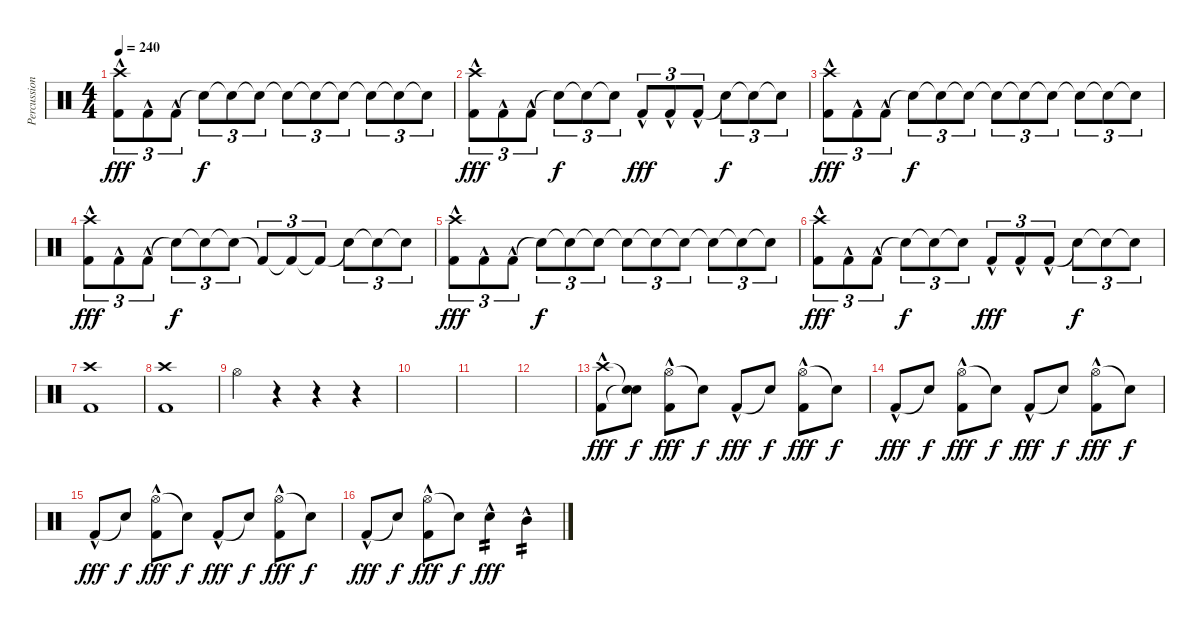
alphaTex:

\track ("Percussion" "Percussion") {instrument percussion}
\staff {score}
\articulation defaults
\ts (4 4)
\tempo 240
\clef neutral
\ks c
("Crash high (hit)" "Kick (hit) 2"{hac}).8{tu (3 2) dy fff} "Kick (hit) 2"{hac}.8{tu (3 2)} "Kick (hit) 2"{hac}.8{tu (3 2)} "Snare (hit)"{t}.8{tu (3 2) dy f} "Snare (hit)"{t}.8{tu (3 2)} "Snare (hit)"{t}.8{tu (3 2)} "Snare (hit)"{t}.8{tu (3 2)} "Snare (hit)"{t}.8{tu (3 2)} "Snare (hit)"{t}.8{tu (3 2)} "Snare (hit)"{t}.8{tu (3 2)} "Snare (hit)"{t}.8{tu (3 2)} "Snare (hit)"{t}.8{tu (3 2)} |
("Crash high (hit)" "Kick (hit) 2"{hac}).8{tu (3 2) dy fff} "Kick (hit) 2"{hac}.8{tu (3 2)} "Kick (hit) 2"{hac}.8{tu (3 2)} "Snare (hit)"{t}.8{tu (3 2) dy f} "Snare (hit)"{t}.8{tu (3 2)} "Snare (hit)"{t}.8{tu (3 2)} "Kick (hit) 2"{hac}.8{tu (3 2) dy fff} "Kick (hit) 2"{hac}.8{tu (3 2)} "Kick (hit) 2"{hac}.8{tu (3 2)} "Snare (hit)"{t}.8{tu (3 2) dy f} "Snare (hit)"{t}.8{tu (3 2)} "Snare (hit)"{t}.8{tu (3 2)} |
("Crash high (hit)" "Kick (hit) 2"{hac}).8{tu (3 2) dy fff} "Kick (hit) 2"{hac}.8{tu (3 2)} "Kick (hit) 2"{hac}.8{tu (3 2)} "Snare (hit)"{t}.8{tu (3 2) dy f} "Snare (hit)"{t}.8{tu (3 2)} "Snare (hit)"{t}.8{tu (3 2)} "Snare (hit)"{t}.8{tu (3 2)} "Snare (hit)"{t}.8{tu (3 2)} "Snare (hit)"{t}.8{tu (3 2)} "Snare (hit)"{t}.8{tu (3 2)} "Snare (hit)"{t}.8{tu (3 2)} "Snare (hit)"{t}.8{tu (3 2)} |
("Crash high (hit)" "Kick (hit) 2"{hac}).8{tu (3 2) dy fff} "Kick (hit) 2"{hac}.8{tu (3 2)} "Kick (hit) 2"{hac}.8{tu (3 2)} "Snare (hit)"{t}.8{tu (3 2) dy f} "Snare (hit)"{t}.8{tu (3 2)} "Snare (hit)"{t}.8{tu (3 2)} "Kick (hit) 2"{t}.8{tu (3 2)} "Kick (hit) 2"{t}.8{tu (3 2)} "Kick (hit) 2"{t}.8{tu (3 2)} "Snare (hit)"{t}.8{tu (3 2)} "Snare (hit)"{t}.8{tu (3 2)} "Snare (hit)"{t}.8{tu (3 2)} |
("Crash high (hit)" "Kick (hit) 2"{hac}).8{tu (3 2) dy fff} "Kick (hit) 2"{hac}.8{tu (3 2)} "Kick (hit) 2"{hac}.8{tu (3 2)} "Snare (hit)"{t}.8{tu (3 2) dy f} "Snare (hit)"{t}.8{tu (3 2)} "Snare (hit)"{t}.8{tu (3 2)} "Snare (hit)"{t}.8{tu (3 2)} "Snare (hit)"{t}.8{tu (3 2)} "Snare (hit)"{t}.8{tu (3 2)} "Snare (hit)"{t}.8{tu (3 2)} "Snare (hit)"{t}.8{tu (3 2)} "Snare (hit)"{t}.8{tu (3 2)} |
("Crash high (hit)" "Kick (hit) 2"{hac}).8{tu (3 2) dy fff} "Kick (hit) 2"{hac}.8{tu (3 2)} "Kick (hit) 2"{hac}.8{tu (3 2)} "Snare (hit)"{t}.8{tu (3 2) dy f} "Snare (hit)"{t}.8{tu (3 2)} "Snare (hit)"{t}.8{tu (3 2)} "Kick (hit) 2"{hac}.8{tu (3 2) dy fff} "Kick (hit) 2"{hac}.8{tu (3 2)} "Kick (hit) 2"{hac}.8{tu (3 2)} "Snare (hit)"{t}.8{tu (3 2) dy f} "Snare (hit)"{t}.8{tu (3 2)} "Snare (hit)"{t}.8{tu (3 2)} |
("Kick (hit) 2" "Crash high (hit)").1 |
("Kick (hit) 2" "Crash high (hit)").1 |
"Hi-Hat (open)".4 r.4 r.4 r.4 |
|
|
|
("Crash high (hit)" "Kick (hit) 2"{hac}).8{dy fff} ("Snare (hit)"{t} "Snare (hit)"{t}).8{dy f} ("Hi-Hat (open)" "Kick (hit) 2"{hac}).8{dy fff} "Snare (hit)"{t}.8{dy f} "Kick (hit) 2"{hac}.8{dy fff} "Snare (hit)"{t}.8{dy f} ("Hi-Hat (open)" "Kick (hit) 2"{hac}).8{dy fff} "Snare (hit)"{t}.8{dy f} |
"Kick (hit) 2"{hac}.8{dy fff} "Snare (hit)"{t}.8{dy f} ("Hi-Hat (open)" "Kick (hit) 2"{hac}).8{dy fff} "Snare (hit)"{t}.8{dy f} "Kick (hit) 2"{hac}.8{dy fff} "Snare (hit)"{t}.8{dy f} ("Hi-Hat (open)" "Kick (hit) 2"{hac}).8{dy fff} "Snare (hit)"{t}.8{dy f} |
"Kick (hit) 2"{hac}.8{dy fff} "Snare (hit)"{t}.8{dy f} ("Hi-Hat (open)" "Kick (hit) 2"{hac}).8{dy fff} "Snare (hit)"{t}.8{dy f} "Kick (hit) 2"{hac}.8{dy fff} "Snare (hit)"{t}.8{dy f} ("Hi-Hat (open)" "Kick (hit) 2"{hac}).8{dy fff} "Snare (hit)"{t}.8{dy f} |
"Kick (hit) 2"{hac}.8{dy fff} "Snare (hit)"{t}.8{dy f} ("Hi-Hat (open)" "Kick (hit) 2"{hac}).8{dy fff} "Snare (hit)"{t}.8{dy f} "Electric Snare (hit)"{hac}.4{tp 2 dy fff} "Mid Tom (hit)"{hac}.4{tp 2}
